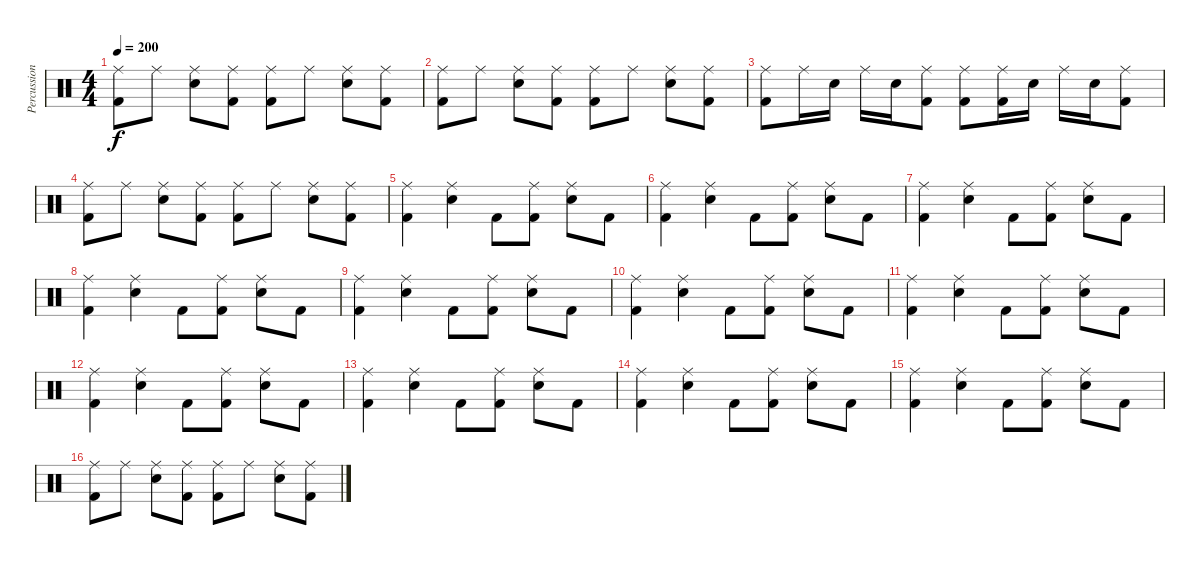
\track ("Percussion" "Percussion") {instrument percussion}
\staff {score}
\articulation defaults
\ts (4 4)
\tempo 200
\clef neutral
\ks c
("Ride (middle)" "Kick (hit) 2").8{dy f} "Ride (middle)".8 ("Ride (middle)" "Snare (hit) 2").8 ("Ride (middle)" "Kick (hit) 2").8 ("Ride (middle)" "Kick (hit) 2").8 "Ride (middle)".8 ("Ride (middle)" "Snare (hit) 2").8 ("Ride (middle)" "Kick (hit) 2").8 |
("Ride (middle)" "Kick (hit) 2").8 "Ride (middle)".8 ("Ride (middle)" "Snare (hit) 2").8 ("Ride (middle)" "Kick (hit) 2").8 ("Ride (middle)" "Kick (hit) 2").8 "Ride (middle)".8 ("Ride (middle)" "Snare (hit) 2").8 ("Ride (middle)" "Kick (hit) 2").8 |
("Ride (middle)" "Kick (hit) 2").8 "Ride (middle)".16 "Snare (hit) 2".16 "Ride (middle)".16 "Snare (hit) 2".16 ("Ride (middle)" "Kick (hit) 2").8 ("Ride (middle)" "Kick (hit) 2").8 ("Ride (middle)" "Kick (hit) 2").16 "Snare (hit) 2".16 "Ride (middle)".16 "Snare (hit) 2".16 ("Ride (middle)" "Kick (hit) 2").8 |
("Ride (middle)" "Kick (hit) 2").8 "Ride (middle)".8 ("Ride (middle)" "Snare (hit) 2").8 ("Ride (middle)" "Kick (hit) 2").8 ("Ride (middle)" "Kick (hit) 2").8 "Ride (middle)".8 ("Ride (middle)" "Snare (hit) 2").8 ("Ride (middle)" "Kick (hit) 2").8 |
("Ride (middle)" "Kick (hit) 2").4 ("Ride (middle)" "Snare (hit) 2").4 "Kick (hit) 2".8 ("Ride (middle)" "Kick (hit) 2").8 ("Ride (middle)" "Snare (hit) 2").8 "Kick (hit) 2".8 |
("Ride (middle)" "Kick (hit) 2").4 ("Ride (middle)" "Snare (hit) 2").4 "Kick (hit) 2".8 ("Ride (middle)" "Kick (hit) 2").8 ("Ride (middle)" "Snare (hit) 2").8 "Kick (hit) 2".8 |
("Ride (middle)" "Kick (hit) 2").4 ("Ride (middle)" "Snare (hit) 2").4 "Kick (hit) 2".8 ("Ride (middle)" "Kick (hit) 2").8 ("Ride (middle)" "Snare (hit) 2").8 "Kick (hit) 2".8 |
("Ride (middle)" "Kick (hit) 2").4 ("Ride (middle)" "Snare (hit) 2").4 "Kick (hit) 2".8 ("Ride (middle)" "Kick (hit) 2").8 ("Ride (middle)" "Snare (hit) 2").8 "Kick (hit) 2".8 |
("Ride (middle)" "Kick (hit) 2").4 ("Ride (middle)" "Snare (hit) 2").4 "Kick (hit) 2".8 ("Ride (middle)" "Kick (hit) 2").8 ("Ride (middle)" "Snare (hit) 2").8 "Kick (hit) 2".8 |
("Ride (middle)" "Kick (hit) 2").4 ("Ride (middle)" "Snare (hit) 2").4 "Kick (hit) 2".8 ("Ride (middle)" "Kick (hit) 2").8 ("Ride (middle)" "Snare (hit) 2").8 "Kick (hit) 2".8 |
("Ride (middle)" "Kick (hit) 2").4 ("Ride (middle)" "Snare (hit) 2").4 "Kick (hit) 2".8 ("Ride (middle)" "Kick (hit) 2").8 ("Ride (middle)" "Snare (hit) 2").8 "Kick (hit) 2".8 |
("Ride (middle)" "Kick (hit) 2").4 ("Ride (middle)" "Snare (hit) 2").4 "Kick (hit) 2".8 ("Ride (middle)" "Kick (hit) 2").8 ("Ride (middle)" "Snare (hit) 2").8 "Kick (hit) 2".8 |
("Ride (middle)" "Kick (hit) 2").4 ("Ride (middle)" "Snare (hit) 2").4 "Kick (hit) 2".8 ("Ride (middle)" "Kick (hit) 2").8 ("Ride (middle)" "Snare (hit) 2").8 "Kick (hit) 2".8 |
("Ride (middle)" "Kick (hit) 2").4 ("Ride (middle)" "Snare (hit) 2").4 "Kick (hit) 2".8 ("Ride (middle)" "Kick (hit) 2").8 ("Ride (middle)" "Snare (hit) 2").8 "Kick (hit) 2".8 |
("Ride (middle)" "Kick (hit) 2").4 ("Ride (middle)" "Snare (hit) 2").4 "Kick (hit) 2".8 ("Ride (middle)" "Kick (hit) 2").8 ("Ride (middle)" "Snare (hit) 2").8 "Kick (hit) 2".8 |
("Ride (middle)" "Kick (hit) 2").8 "Ride (middle)".8 ("Ride (middle)" "Snare (hit) 2").8 ("Ride (middle)" "Kick (hit) 2").8 ("Ride (middle)" "Kick (hit) 2").8 "Ride (middle)".8 ("Ride (middle)" "Snare (hit) 2").8 ("Ride (middle)" "Kick (hit) 2").8
